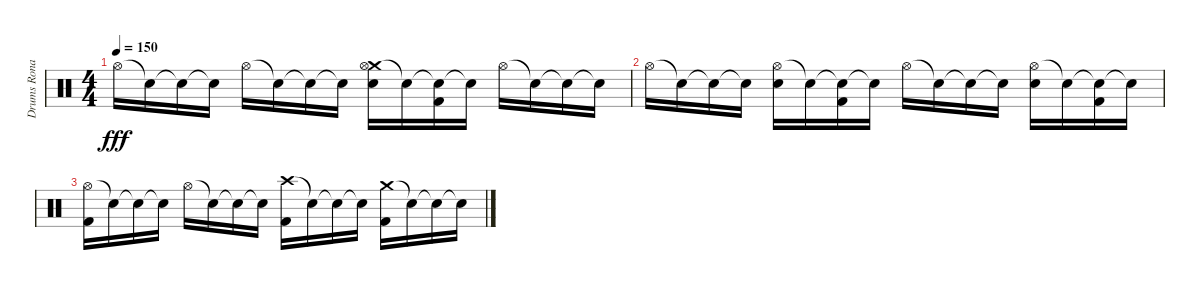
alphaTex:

\track ("Drums Ronald Reagen FTW" "Drums Rona") {instrument percussion}
\staff {score}
\articulation defaults
\ts (4 4)
\tempo 150
\clef neutral
\ks c "Hi-Hat (open)".16{dy fff} "Snare (hit)"{t}.16 "Snare (hit)"{t}.16 "Snare (hit)"{t}.16 "Hi-Hat (open)".16 "Snare (hit)"{t}.16 "Snare (hit)"{t}.16 "Snare (hit)"{t}.16
("Crash medium (hit)" "Hi-Hat (open)" "Electric Snare (hit)").16 "Snare (hit)"{t}.16 ("Snare (hit)"{t} "Kick (hit) 2").16 "Snare (hit)"{t}.16 "Hi-Hat (open)".16 "Snare (hit)"{t}.16 "Snare (hit)"{t}.16 "Snare (hit)"{t}.16 |
"Hi-Hat (open)".16 "Snare (hit)"{t}.16 "Snare (hit)"{t}.16 "Snare (hit)"{t}.16 ("Hi-Hat (open)" "Electric Snare (hit)").16 "Snare (hit)"{t}.16 ("Snare (hit)"{t} "Kick (hit) 2").16 "Snare (hit)"{t}.16 "Hi-Hat (open)".16 "Snare (hit)"{t}.16 "Snare (hit)"{t}.16 "Snare (hit)"{t}.16 ("Hi-Hat (open)" "Electric Snare (hit)").16 "Snare (hit)"{t}.16 ("Snare (hit)"{t} "Kick (hit) 2").16 "Snare (hit)"{t}.16 |
("Hi-Hat (open)" "Kick (hit) 2").16 "Snare (hit)"{t}.16 "Snare (hit)"{t}.16 "Snare (hit)"{t}.16 "Hi-Hat (open)".16 "Snare (hit)"{t}.16 "Snare (hit)"{t}.16 "Snare (hit)"{t}.16 ("Crash high (hit)" "Kick (hit) 2").16 "Snare (hit)"{t}.16 "Snare (hit)"{t}.16 "Snare (hit)"{t}.16 ("Crash medium (hit)" "Kick (hit) 2").16 "Snare (hit)"{t}.16 "Snare (hit)"{t}.16 "Snare (hit)"{t}.16
